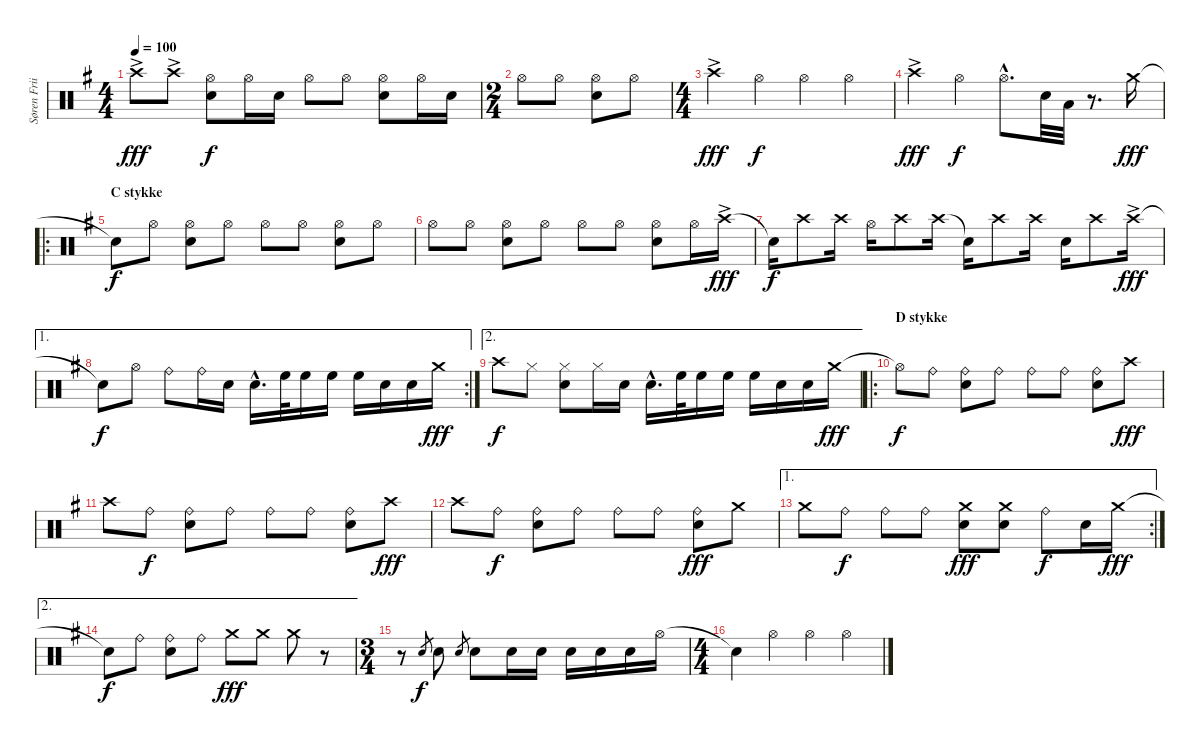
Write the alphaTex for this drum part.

\track ("Søren Friis (Drums)" "Søren Frii") {instrument percussion}
\staff {score}
\articulation defaults
\ts (4 4)
\tempo 100
\clef neutral
\ks g "Crash high (hit)"{ac}.8{dy fff} "Crash high (hit)"{ac}.8
("Snare (hit) 2" "Hi-Hat (open)").8{dy f} "Hi-Hat (open)".16 "Snare (hit) 2".16 "Hi-Hat (open)".8 "Hi-Hat (open)".8 ("Snare (hit) 2" "Hi-Hat (open)").8 "Hi-Hat (open)".16 "Snare (hit) 2".16 |
\ts (2 4)
"Hi-Hat (open)".8 "Hi-Hat (open)".8 ("Hi-Hat (open)" "Snare (hit) 2").8 "Hi-Hat (open)".8 |
\ts (4 4)
"Crash high (hit)"{ac}.4{dy fff} "Hi-Hat (open)".4{dy f} "Hi-Hat (open)".4 "Hi-Hat (open)".4 |
"Crash high (hit)"{ac}.4{dy fff} "Hi-Hat (open)".4{dy f} "Hi-Hat (open)"{hac}.8{d} "Snare (hit) 2".32 "Low Tom (hit)".32 r.8{d} "Crash medium (hit)".16{dy fff} |
\ro
\section ("" "C stykke")
"Snare (hit)"{t}.8{dy f} "Hi-Hat (open)".8 ("Hi-Hat (open)" "Snare (hit) 2").8 "Hi-Hat (open)".8 "Hi-Hat (open)".8 "Hi-Hat (open)".8 ("Hi-Hat (open)" "Snare (hit) 2").8 "Hi-Hat (open)".8 |
"Hi-Hat (open)".8 "Hi-Hat (open)".8 ("Hi-Hat (open)" "Snare (hit) 2").8 "Hi-Hat (open)".8 "Hi-Hat (open)".8 "Hi-Hat (open)".8 ("Hi-Hat (open)" "Snare (hit) 2").8 "Hi-Hat (open)".16 "Crash high (hit)"{ac}.16{dy fff} |
"Snare (hit)"{t}.16{dy f} "Crash high (hit)".8 "Crash high (hit)".16 "Hi-Hat (open)".16 "Crash high (hit)".8 "Crash high (hit)".16 "Snare (hit)"{t}.16 "Crash high (hit)".8 "Crash high (hit)".16 "Snare (hit) 2".16 "Crash high (hit)".8 "Crash high (hit)"{ac}.16{dy fff} |
\ae 1
\rc 2 "Snare (hit)"{t}.8{dy f} "Hi-Hat (open)".8 "Ride (bell)".8 "Ride (bell)".16 "Snare (hit) 2".16 "Snare (hit) 2"{hac}.16{d} "High Floor Tom (hit)".32 "High Floor Tom (hit)".16 "High Floor Tom (hit)".16 "High Floor Tom (hit)".16 "Snare (hit) 2".16 "Snare (hit) 2".16 "Crash medium (hit)".16{dy fff}
|
\ae 2 "Crash high (hit)".8{dy f} "Hi-Hat (closed)".8
("Hi-Hat (closed)" "Snare (hit) 2").8 "Hi-Hat (closed)".16 "Snare (hit) 2".16 "Snare (hit) 2"{hac}.16{d} "High Floor Tom (hit)".32 "High Floor Tom (hit)".16 "High Floor Tom (hit)".16 "High Floor Tom (hit)".16 "Snare (hit) 2".16 "Snare (hit) 2".16 "Crash medium (hit)".16{dy fff} |
\ro
\section ("" "D stykke")
"Hi-Hat (open)"{t}.8{dy f} "Ride (bell)".8 ("Ride (bell)" "Snare (hit) 2").8 "Ride (bell)".8 "Ride (bell)".8 "Ride (bell)".8 ("Ride (bell)" "Snare (hit) 2").8 "Crash high (hit)".8{dy fff} |
"Crash high (hit)".8 "Ride (bell)".8{dy f} ("Ride (bell)" "Snare (hit) 2").8 "Ride (bell)".8 "Ride (bell)".8 "Ride (bell)".8 ("Ride (bell)" "Snare (hit) 2").8 "Crash high (hit)".8{dy fff} |
"Crash high (hit)".8 "Ride (bell)".8{dy f} ("Ride (bell)" "Snare (hit) 2").8 "Ride (bell)".8 "Ride (bell)".8 "Ride (bell)".8 ("Ride (bell)" "Snare (hit) 2").8{dy fff} "Crash medium (hit)".8 |
\ae 1
\rc 2 "Crash medium (hit)".8 "Ride (bell)".8{dy f} "Ride (bell)".8 "Ride (bell)".8
("Crash medium (hit)" "Snare (hit) 2").8{dy fff} ("Crash medium (hit)" "Snare (hit) 2").8 "Ride (bell)".8{dy f} "Snare (hit) 2".16 "Crash medium (hit)".16{dy fff} |
\ae 2 "Snare (hit)"{t}.8{dy f} "Ride (bell)".8
("Ride (bell)" "Snare (hit) 2").8 "Ride (bell)".8 "Crash medium (hit)".8{dy fff} "Crash medium (hit)".8 "Crash medium (hit)".8 r.8 |
\ts (3 4)
r.8 "Snare (hit) 2".8{gr dy f} "Snare (hit) 2".8 "Snare (hit) 2".8{gr} "Snare (hit) 2".8 "Snare (hit) 2".16 "Snare (hit) 2".16 "Snare (hit) 2".16 "Snare (hit) 2".16 "Snare (hit) 2".16 "Hi-Hat (open)".16 |
\ts (4 4)
"Snare (hit)"{t}.4 "Hi-Hat (open)".4 "Hi-Hat (open)".4 "Hi-Hat (open)".4
